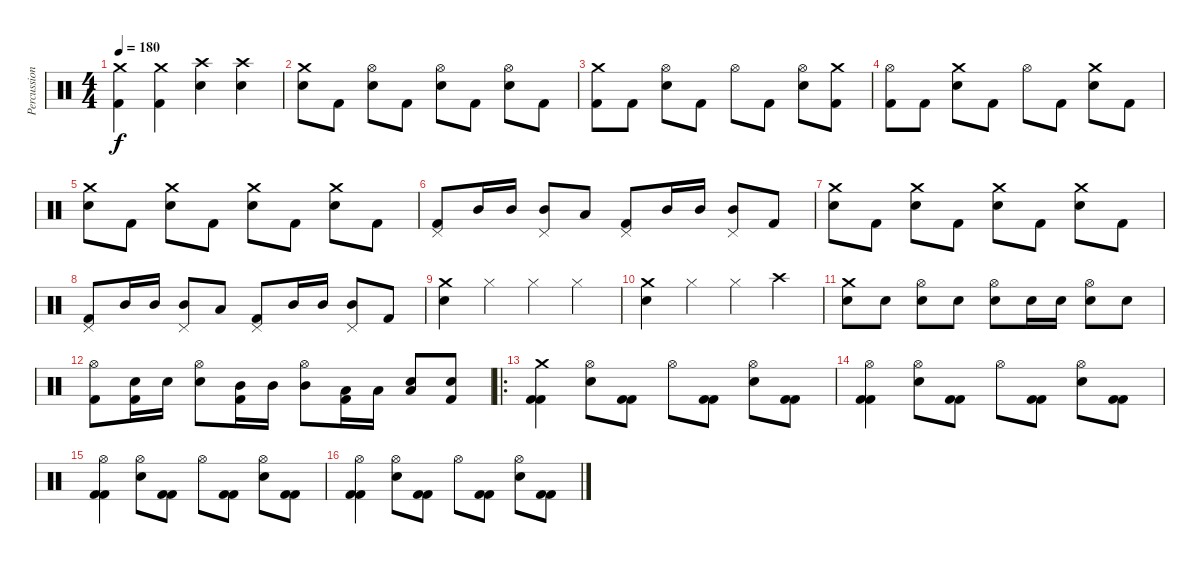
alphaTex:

\track ("Percussioni" "Percussion") {instrument percussion}
\staff {score}
\articulation defaults
\ts (4 4)
\tempo 180
\clef neutral
\ks c
("Crash medium (hit)" "Kick (hit) 2").4{dy f} ("Crash medium (hit)" "Kick (hit) 2").4 ("Crash high (hit)" "Electric Snare (hit)").4 ("Crash high (hit)" "Electric Snare (hit)").4 |
("Crash medium (hit)" "Electric Snare (hit)").8 "Kick (hit) 2".8 ("Hi-Hat (open)" "Electric Snare (hit)").8 "Kick (hit) 2".8 ("Hi-Hat (open)" "Electric Snare (hit)").8 "Kick (hit) 2".8 ("Hi-Hat (open)" "Electric Snare (hit)").8 "Kick (hit) 2".8 |
("Crash medium (hit)" "Kick (hit) 2").8 "Kick (hit) 2".8 ("Hi-Hat (open)" "Electric Snare (hit)").8 "Kick (hit) 2".8 "Hi-Hat (open)".8 "Kick (hit) 2".8 ("Hi-Hat (open)" "Electric Snare (hit)").8 ("Crash medium (hit)" "Kick (hit) 2").8 |
("Hi-Hat (open)" "Kick (hit) 2").8 "Kick (hit) 2".8 ("Crash medium (hit)" "Electric Snare (hit)").8 "Kick (hit) 2".8 "Hi-Hat (open)".8 "Kick (hit) 2".8 ("Crash medium (hit)" "Electric Snare (hit)").8 "Kick (hit) 2".8 |
("Crash medium (hit)" "Electric Snare (hit)").8 "Kick (hit) 2".8 ("Crash medium (hit)" "Electric Snare (hit)").8 "Kick (hit) 2".8 ("Crash medium (hit)" "Electric Snare (hit)").8 "Kick (hit) 2".8 ("Crash medium (hit)" "Electric Snare (hit)").8 "Kick (hit) 2".8 |
("Pedal Hi-Hat (hit)" "Kick (hit) 2").8 "Mid Tom (hit)".16 "Mid Tom (hit)".16 ("Pedal Hi-Hat (hit)" "Mid Tom (hit)").8 "Low Tom (hit)".8 ("Pedal Hi-Hat (hit)" "Kick (hit) 2").8 "Mid Tom (hit)".16 "Mid Tom (hit)".16 ("Pedal Hi-Hat (hit)" "Mid Tom (hit)").8 "Kick (hit) 2".8 |
("Crash medium (hit)" "Electric Snare (hit)").8 "Kick (hit) 2".8 ("Crash medium (hit)" "Electric Snare (hit)").8 "Kick (hit) 2".8 ("Crash medium (hit)" "Electric Snare (hit)").8 "Kick (hit) 2".8 ("Crash medium (hit)" "Electric Snare (hit)").8 "Kick (hit) 2".8 |
("Pedal Hi-Hat (hit)" "Kick (hit) 2").8 "Mid Tom (hit)".16 "Mid Tom (hit)".16 ("Pedal Hi-Hat (hit)" "Mid Tom (hit)").8 "Low Tom (hit)".8 ("Pedal Hi-Hat (hit)" "Kick (hit) 2").8 "Mid Tom (hit)".16 "Mid Tom (hit)".16 ("Pedal Hi-Hat (hit)" "Mid Tom (hit)").8 "Kick (hit) 2".8 |
("Crash medium (hit)" "Electric Snare (hit)").4 "Hi-Hat (closed)".4 "Hi-Hat (closed)".4 "Hi-Hat (closed)".4 |
("Crash medium (hit)" "Electric Snare (hit)").4 "Hi-Hat (closed)".4 "Hi-Hat (closed)".4 "Crash high (hit)".4 |
("Crash medium (hit)" "Electric Snare (hit)").8 "Electric Snare (hit)".8 ("Hi-Hat (open)" "Electric Snare (hit)").8 "Electric Snare (hit)".8 ("Hi-Hat (open)" "Electric Snare (hit)").8 "Electric Snare (hit)".16 "Electric Snare (hit)".16 ("Hi-Hat (open)" "Electric Snare (hit)").8 "Electric Snare (hit)".8 |
("Hi-Hat (open)" "Kick (hit) 2").8 ("Electric Snare (hit)" "Kick (hit) 2").16 "Electric Snare (hit)".16 ("Hi-Hat (open)" "Electric Snare (hit)").8 ("Mid Tom (hit)" "Kick (hit) 2").16 "Mid Tom (hit)".16 ("Hi-Hat (open)" "Mid Tom (hit)").8 ("Low Tom (hit)" "Kick (hit) 2").16 "Low Tom (hit)".16 ("Low Tom (hit)" "Electric Snare (hit)").8 ("Electric Snare (hit)" "Kick (hit) 2").8 |
\ro
("Crash medium (hit)" "Kick (hit) 2" "Kick (hit) 2").4 ("Hi-Hat (open)" "Electric Snare (hit)").8 ("Kick (hit) 2" "Kick (hit) 2").8 "Hi-Hat (open)".8 ("Kick (hit) 2" "Kick (hit) 2").8 ("Hi-Hat (open)" "Electric Snare (hit)").8 ("Kick (hit) 2" "Kick (hit) 2").8 |
("Hi-Hat (open)" "Kick (hit) 2" "Kick (hit) 2").4 ("Hi-Hat (open)" "Electric Snare (hit)").8 ("Kick (hit) 2" "Kick (hit) 2").8 "Hi-Hat (open)".8 ("Kick (hit) 2" "Kick (hit) 2").8 ("Hi-Hat (open)" "Electric Snare (hit)").8 ("Kick (hit) 2" "Kick (hit) 2").8 |
("Hi-Hat (open)" "Kick (hit) 2" "Kick (hit) 2").4 ("Hi-Hat (open)" "Electric Snare (hit)").8 ("Kick (hit) 2" "Kick (hit) 2").8 "Hi-Hat (open)".8 ("Kick (hit) 2" "Kick (hit) 2").8 ("Hi-Hat (open)" "Electric Snare (hit)").8 ("Kick (hit) 2" "Kick (hit) 2").8 |
("Hi-Hat (open)" "Kick (hit) 2" "Kick (hit) 2").4 ("Hi-Hat (open)" "Electric Snare (hit)").8 ("Kick (hit) 2" "Kick (hit) 2").8 "Hi-Hat (open)".8 ("Kick (hit) 2" "Kick (hit) 2").8 ("Hi-Hat (open)" "Electric Snare (hit)").8 ("Kick (hit) 2" "Kick (hit) 2").8
